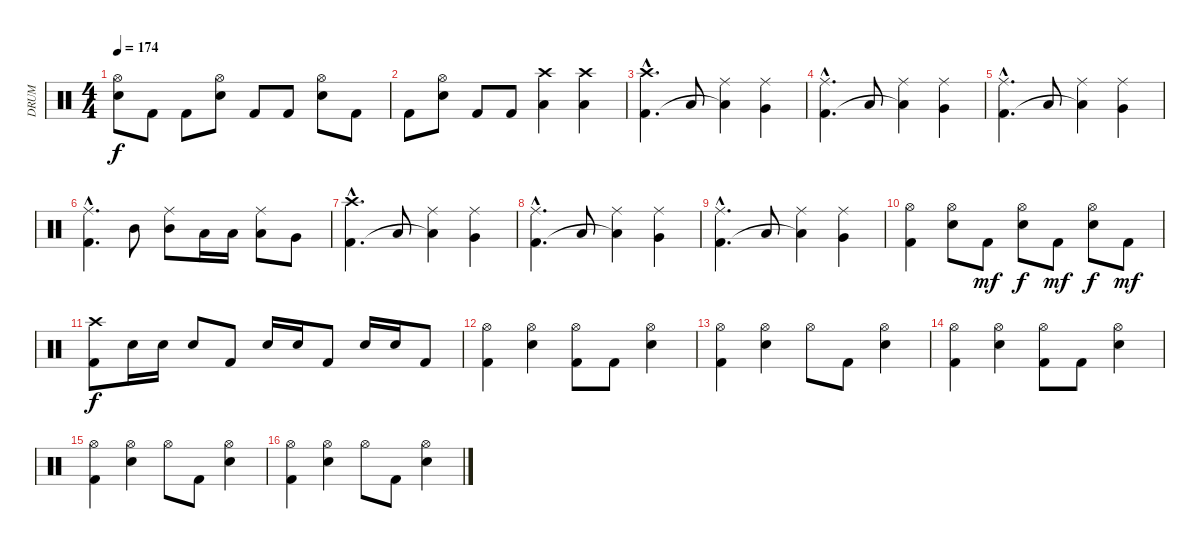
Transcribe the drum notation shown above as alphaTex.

\track ("DRUM" "DRUM") {instrument percussion}
\staff {score}
\articulation defaults
\ts (4 4)
\tempo 174
\clef neutral
\ks c
("Hi-Hat (open)" "Snare (hit) 2").8{dy f} "Kick (hit) 2".8 "Kick (hit) 2".8 ("Hi-Hat (open)" "Snare (hit) 2").8 "Kick (hit) 2".8 "Kick (hit) 2".8 ("Hi-Hat (open)" "Snare (hit) 2").8 "Kick (hit) 2".8 |
"Kick (hit) 2".8 ("Hi-Hat (open)" "Snare (hit) 2").8 "Kick (hit) 2".8 "Kick (hit) 2".8 ("Crash high (hit)" "Low Tom (hit)").4 ("Crash high (hit)" "Low Floor Tom (hit)").4 |
("Crash high (hit)"{hac} "Kick (hit) 2"{hac}).4{d} "Low Tom (hit)".8 ("Ride (middle)" "Low Floor Tom (hit)"{t}).4 ("Ride (middle)" "Very Low Tom (hit)").4 |
("Ride (middle)"{hac} "Kick (hit) 2"{hac}).4{d} "Low Tom (hit)".8 ("Ride (middle)" "Low Floor Tom (hit)"{t}).4 ("Ride (middle)" "Very Low Tom (hit)").4 |
("Ride (middle)"{hac} "Kick (hit) 2"{hac}).4{d} "Low Tom (hit)".8 ("Ride (middle)" "Low Floor Tom (hit)"{t}).4 ("Ride (middle)" "Very Low Tom (hit)").4 |
("Ride (middle)"{hac} "Kick (hit) 2"{hac}).4{d} "Mid Tom (hit)".8 ("Ride (middle)" "Mid Tom (hit)").8 "Low Tom (hit)".16 "Low Tom (hit)".16 ("Ride (middle)" "Low Tom (hit)").8 "Very Low Tom (hit)".8 |
("Crash high (hit)"{hac} "Kick (hit) 2"{hac}).4{d} "Low Tom (hit)".8 ("Ride (middle)" "Low Floor Tom (hit)"{t}).4 ("Ride (middle)" "Very Low Tom (hit)").4 |
("Ride (middle)"{hac} "Kick (hit) 2"{hac}).4{d} "Low Tom (hit)".8 ("Ride (middle)" "Low Floor Tom (hit)"{t}).4 ("Ride (middle)" "Very Low Tom (hit)").4 |
("Ride (middle)"{hac} "Kick (hit) 2"{hac}).4{d} "Low Tom (hit)".8 ("Ride (middle)" "Low Floor Tom (hit)"{t}).4 ("Ride (middle)" "Very Low Tom (hit)").4 |
("Hi-Hat (open)" "Kick (hit) 2").4 ("Hi-Hat (open)" "Snare (hit) 2").8 "Kick (hit) 2".8{dy mf} ("Hi-Hat (open)" "Snare (hit) 2").8{dy f} "Kick (hit) 2".8{dy mf} ("Hi-Hat (open)" "Snare (hit) 2").8{dy f} "Kick (hit) 2".8{dy mf} |
("Crash high (hit)" "Kick (hit) 2").8{dy f} "Snare (hit) 2".16 "Snare (hit) 2".16 "Snare (hit) 2".8 "Kick (hit) 2".8 "Snare (hit) 2".16 "Snare (hit) 2".16 "Kick (hit) 2".8 "Snare (hit) 2".16 "Snare (hit) 2".16 "Kick (hit) 2".8 |
("Hi-Hat (open)" "Kick (hit) 2").4 ("Hi-Hat (open)" "Snare (hit) 2").4 ("Hi-Hat (open)" "Kick (hit) 2").8 "Kick (hit) 2".8 ("Hi-Hat (open)" "Snare (hit) 2").4 |
("Hi-Hat (open)" "Kick (hit) 2").4 ("Hi-Hat (open)" "Snare (hit) 2").4 "Hi-Hat (open)".8 "Kick (hit) 2".8 ("Hi-Hat (open)" "Snare (hit) 2").4 |
("Hi-Hat (open)" "Kick (hit) 2").4 ("Hi-Hat (open)" "Snare (hit) 2").4 ("Hi-Hat (open)" "Kick (hit) 2").8 "Kick (hit) 2".8 ("Hi-Hat (open)" "Snare (hit) 2").4 |
("Hi-Hat (open)" "Kick (hit) 2").4 ("Hi-Hat (open)" "Snare (hit) 2").4 "Hi-Hat (open)".8 "Kick (hit) 2".8 ("Hi-Hat (open)" "Snare (hit) 2").4 |
("Hi-Hat (open)" "Kick (hit) 2").4 ("Hi-Hat (open)" "Snare (hit) 2").4 "Hi-Hat (open)".8 "Kick (hit) 2".8 ("Hi-Hat (open)" "Snare (hit) 2").4
